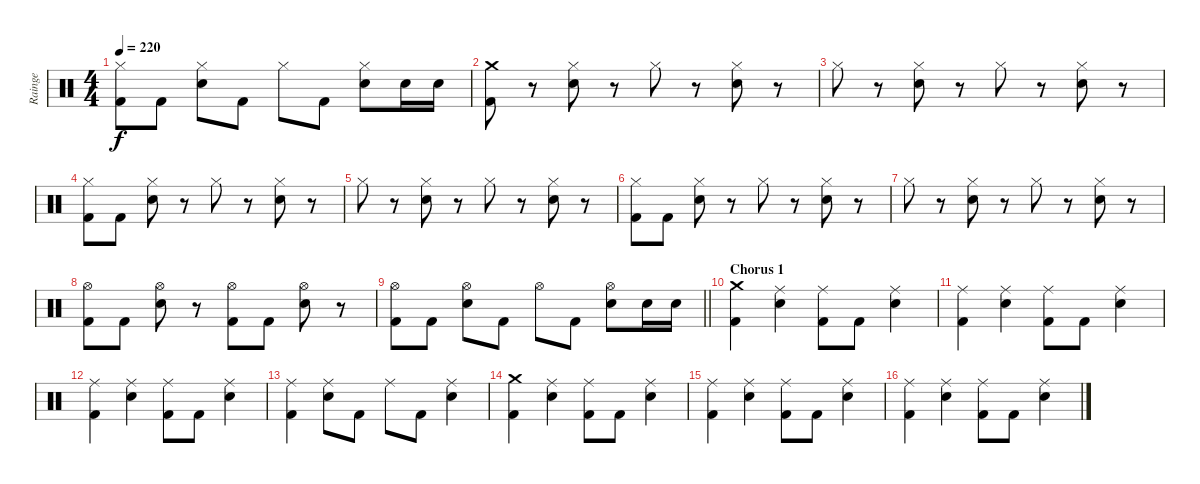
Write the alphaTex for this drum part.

\track ("Rainge" "Rainge") {instrument percussion}
\staff {score}
\articulation defaults
\ts (4 4)
\tempo 220
\clef neutral
\ks c
("Hi-Hat (closed)" "Kick (hit) 2").8{dy f} "Kick (hit) 2".8 ("Hi-Hat (closed)" "Electric Snare (hit)").8 "Kick (hit) 2".8 "Hi-Hat (closed)".8 "Kick (hit) 2".8 ("Hi-Hat (closed)" "Electric Snare (hit)").8 "Electric Snare (hit)".16 "Electric Snare (hit)".16 |
("Crash medium (hit)" "Kick (hit) 2").8 r.8 ("Hi-Hat (closed)" "Electric Snare (hit)").8 r.8 "Hi-Hat (closed)".8 r.8 ("Hi-Hat (closed)" "Electric Snare (hit)").8 r.8 |
"Hi-Hat (closed)".8 r.8 ("Hi-Hat (closed)" "Electric Snare (hit)").8 r.8 "Hi-Hat (closed)".8 r.8 ("Hi-Hat (closed)" "Electric Snare (hit)").8 r.8 |
("Hi-Hat (closed)" "Kick (hit) 2").8 "Kick (hit) 2".8 ("Hi-Hat (closed)" "Electric Snare (hit)").8 r.8 "Hi-Hat (closed)".8 r.8 ("Hi-Hat (closed)" "Electric Snare (hit)").8 r.8 |
"Hi-Hat (closed)".8 r.8 ("Hi-Hat (closed)" "Electric Snare (hit)").8 r.8 "Hi-Hat (closed)".8 r.8 ("Hi-Hat (closed)" "Electric Snare (hit)").8 r.8 |
("Hi-Hat (closed)" "Kick (hit) 2").8 "Kick (hit) 2".8 ("Hi-Hat (closed)" "Electric Snare (hit)").8 r.8 "Hi-Hat (closed)".8 r.8 ("Hi-Hat (closed)" "Electric Snare (hit)").8 r.8 |
"Hi-Hat (closed)".8 r.8 ("Hi-Hat (closed)" "Electric Snare (hit)").8 r.8 "Hi-Hat (closed)".8 r.8 ("Hi-Hat (closed)" "Electric Snare (hit)").8 r.8 |
("Hi-Hat (open)" "Kick (hit) 2").8 "Kick (hit) 2".8 ("Hi-Hat (open)" "Electric Snare (hit)").8 r.8 ("Hi-Hat (open)" "Kick (hit) 2").8 "Kick (hit) 2".8 ("Hi-Hat (open)" "Electric Snare (hit)").8 r.8 |
\barLineRight lightlight
("Hi-Hat (open)" "Kick (hit) 2").8 "Kick (hit) 2".8 ("Hi-Hat (open)" "Electric Snare (hit)").8 "Kick (hit) 2".8 "Hi-Hat (open)".8 "Kick (hit) 2".8 ("Hi-Hat (open)" "Electric Snare (hit)").8 "Electric Snare (hit)".16 "Electric Snare (hit)".16 |
\section ("" "Chorus 1")
("Crash medium (hit)" "Kick (hit) 2").4 ("Ride (middle)" "Electric Snare (hit)").4 ("Ride (middle)" "Kick (hit) 2").8 "Kick (hit) 2".8 ("Ride (middle)" "Electric Snare (hit)").4 |
("Ride (middle)" "Kick (hit) 2").4 ("Ride (middle)" "Electric Snare (hit)").4 ("Ride (middle)" "Kick (hit) 2").8 "Kick (hit) 2".8 ("Ride (middle)" "Electric Snare (hit)").4 |
("Ride (middle)" "Kick (hit) 2").4 ("Ride (middle)" "Electric Snare (hit)").4 ("Ride (middle)" "Kick (hit) 2").8 "Kick (hit) 2".8 ("Ride (middle)" "Electric Snare (hit)").4 |
("Ride (middle)" "Kick (hit) 2").4 ("Ride (middle)" "Electric Snare (hit)").8 "Kick (hit) 2".8 "Ride (middle)".8 "Kick (hit) 2".8 ("Ride (middle)" "Electric Snare (hit)").4 |
("Crash medium (hit)" "Kick (hit) 2").4 ("Ride (middle)" "Electric Snare (hit)").4 ("Ride (middle)" "Kick (hit) 2").8 "Kick (hit) 2".8 ("Ride (middle)" "Electric Snare (hit)").4 |
("Ride (middle)" "Kick (hit) 2").4 ("Ride (middle)" "Electric Snare (hit)").4 ("Ride (middle)" "Kick (hit) 2").8 "Kick (hit) 2".8 ("Ride (middle)" "Electric Snare (hit)").4 |
("Ride (middle)" "Kick (hit) 2").4 ("Ride (middle)" "Electric Snare (hit)").4 ("Ride (middle)" "Kick (hit) 2").8 "Kick (hit) 2".8 ("Ride (middle)" "Electric Snare (hit)").4
